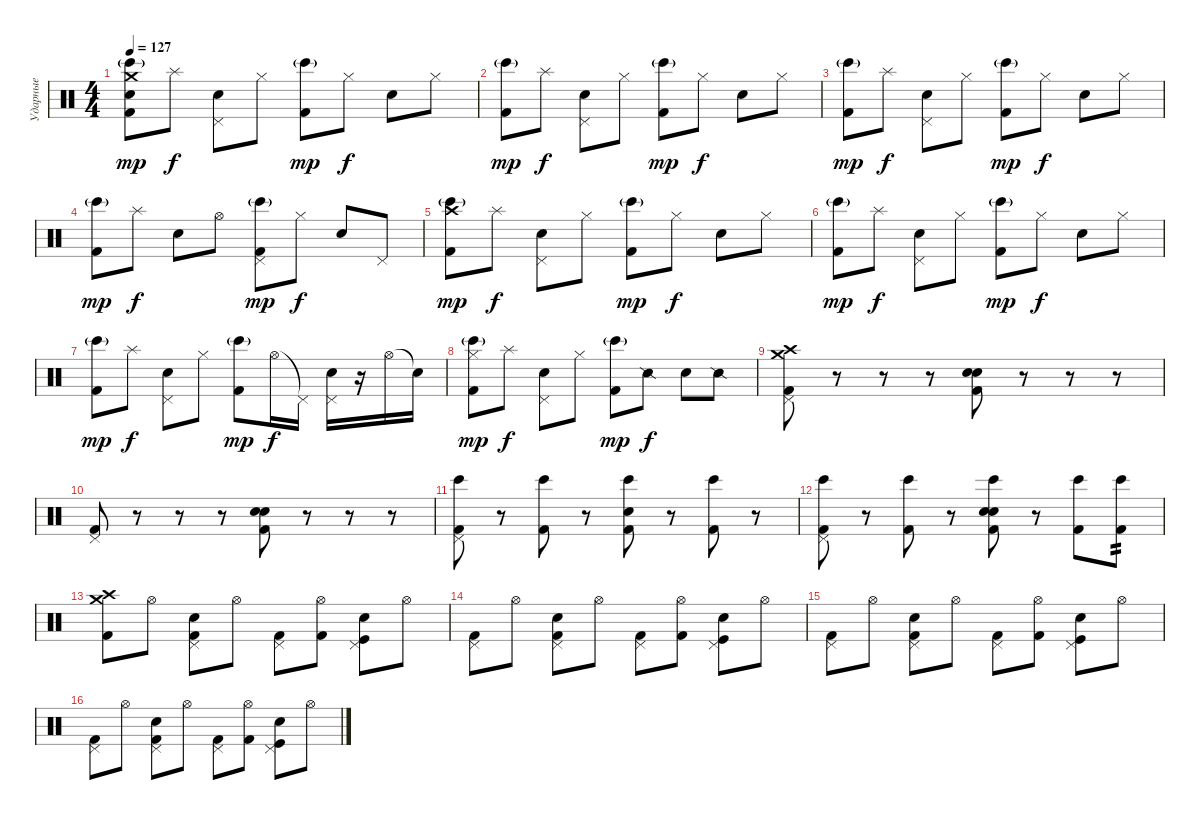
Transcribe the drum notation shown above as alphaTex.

\track ("Ударные" "Ударные") {instrument percussion}
\staff {score}
\articulation defaults
\ts (4 4)
\tempo 127
\clef neutral
\ks c
("Crash medium (hit)" "Bongo High (hit)"{g} "Electric Snare (hit)" "Kick (hit) 2").8{dy mp} "Splash (hit)".8{dy f} ("Pedal Hi-Hat (hit)" "Snare (hit) 2").8 "Hi-Hat (closed)".8 ("Bongo High (hit)"{g} "Kick (hit) 2").8{dy mp} "Hi-Hat (closed)".8{dy f} "Snare (hit) 2".8 "Hi-Hat (closed)".8 |
("Bongo High (hit)"{g} "Kick (hit) 2").8{dy mp} "Splash (hit)".8{dy f} ("Pedal Hi-Hat (hit)" "Snare (hit) 2").8 "Hi-Hat (closed)".8 ("Bongo High (hit)"{g} "Kick (hit) 2").8{dy mp} "Hi-Hat (closed)".8{dy f} "Snare (hit) 2".8 "Hi-Hat (closed)".8 |
("Bongo High (hit)"{g} "Kick (hit) 2").8{dy mp} "Splash (hit)".8{dy f} ("Pedal Hi-Hat (hit)" "Snare (hit) 2").8 "Hi-Hat (closed)".8 ("Bongo High (hit)"{g} "Kick (hit) 2").8{dy mp} "Hi-Hat (closed)".8{dy f} "Snare (hit) 2".8 "Hi-Hat (closed)".8 |
("Bongo High (hit)"{g} "Kick (hit) 2").8{dy mp} "Splash (hit)".8{dy f} "Snare (hit) 2".8 "Hi-Hat (open)".8 ("Pedal Hi-Hat (hit)" "Bongo High (hit)"{g} "Kick (hit) 2").8{dy mp} "Hi-Hat (closed)".8{dy f} "Snare (hit) 2".8 "Pedal Hi-Hat (hit)".8 |
("Crash high (hit)" "Bongo High (hit)"{g} "Kick (hit) 2").8{dy mp} "Splash (hit)".8{dy f} ("Pedal Hi-Hat (hit)" "Snare (hit) 2").8 "Hi-Hat (closed)".8 ("Bongo High (hit)"{g} "Kick (hit) 2").8{dy mp} "Hi-Hat (closed)".8{dy f} "Snare (hit) 2".8 "Hi-Hat (closed)".8 |
("Bongo High (hit)"{g} "Kick (hit) 2").8{dy mp} "Splash (hit)".8{dy f} ("Pedal Hi-Hat (hit)" "Snare (hit) 2").8 "Hi-Hat (closed)".8 ("Bongo High (hit)"{g} "Kick (hit) 2").8{dy mp} "Hi-Hat (closed)".8{dy f} "Snare (hit) 2".8 "Hi-Hat (closed)".8 |
("Bongo High (hit)"{g} "Kick (hit) 2").8{dy mp} "Splash (hit)".8{dy f} ("Pedal Hi-Hat (hit)" "Snare (hit) 2").8 "Hi-Hat (closed)".8 ("Bongo High (hit)"{g} "Kick (hit) 2").8{dy mp} "Hi-Hat (open)".16{dy f} "Pedal Hi-Hat (hit)"{t}.16 ("Pedal Hi-Hat (hit)" "Snare (hit) 2").16 r.16 "Hi-Hat (open)".16 "Snare (hit)"{t}.16 |
("Hi-Hat (closed)" "Bongo High (hit)"{g} "Kick (hit) 2").8{dy mp} "Splash (hit)".8{dy f} ("Pedal Hi-Hat (hit)" "Snare (hit) 2").8 "Hi-Hat (closed)".8 ("Bongo High (hit)"{g} "Kick (hit) 2").8{dy mp} "Snare (side stick) 2".8{dy f} "Snare (hit) 2".8 "Snare (side stick) 2".8 |
("Crash medium (hit)" "Crash high (hit)" "Pedal Hi-Hat (hit)" "Kick (hit) 2").8 r.8 r.8 r.8 ("Snare (hit) 2" "Electric Snare (hit)" "Kick (hit) 2").8 r.8 r.8 r.8 |
("Pedal Hi-Hat (hit)" "Kick (hit) 2").8 r.8 r.8 r.8 ("Snare (hit) 2" "Electric Snare (hit)" "Kick (hit) 2").8 r.8 r.8 r.8 |
("Pedal Hi-Hat (hit)" "Bongo High (hit)" "Kick (hit) 2").8 r.8 ("Bongo High (hit)" "Kick (hit) 2").8 r.8 ("Electric Snare (hit)" "Bongo High (hit)" "Kick (hit) 2").8 r.8 ("Bongo High (hit)" "Kick (hit) 2").8 r.8 |
("Pedal Hi-Hat (hit)" "Bongo High (hit)" "Kick (hit) 2").8 r.8 ("Bongo High (hit)" "Kick (hit) 2").8 r.8 ("Snare (hit) 2" "Electric Snare (hit)" "Bongo High (hit)" "Kick (hit) 2").8 r.8 ("Bongo High (hit)" "Kick (hit) 2").8 ("Bongo High (hit)" "Kick (hit) 2").8{tp 2} |
("Crash medium (hit)" "Crash high (hit)" "Kick (hit) 2").8 "Hi-Hat (open)".8 ("Pedal Hi-Hat (hit)" "Snare (hit) 2" "Kick (hit) 2").8 "Hi-Hat (open)".8 ("Pedal Hi-Hat (hit)" "Kick (hit) 2").8 ("Hi-Hat (open)" "Kick (hit) 2").8 ("Pedal Hi-Hat (hit)" "Snare (hit) 2" "Kick (hit)").8 "Hi-Hat (open)".8 |
("Pedal Hi-Hat (hit)" "Kick (hit) 2").8 "Hi-Hat (open)".8 ("Pedal Hi-Hat (hit)" "Snare (hit) 2" "Kick (hit) 2").8 "Hi-Hat (open)".8 ("Pedal Hi-Hat (hit)" "Kick (hit) 2").8 ("Hi-Hat (open)" "Kick (hit) 2").8 ("Pedal Hi-Hat (hit)" "Snare (hit) 2" "Kick (hit)").8 "Hi-Hat (open)".8 |
("Pedal Hi-Hat (hit)" "Kick (hit) 2").8 "Hi-Hat (open)".8 ("Pedal Hi-Hat (hit)" "Snare (hit) 2" "Kick (hit) 2").8 "Hi-Hat (open)".8 ("Pedal Hi-Hat (hit)" "Kick (hit) 2").8 ("Hi-Hat (open)" "Kick (hit) 2").8 ("Pedal Hi-Hat (hit)" "Snare (hit) 2" "Kick (hit)").8 "Hi-Hat (open)".8 |
("Pedal Hi-Hat (hit)" "Kick (hit) 2").8 "Hi-Hat (open)".8 ("Pedal Hi-Hat (hit)" "Snare (hit) 2" "Kick (hit) 2").8 "Hi-Hat (open)".8 ("Pedal Hi-Hat (hit)" "Kick (hit) 2").8 ("Hi-Hat (open)" "Kick (hit) 2").8 ("Pedal Hi-Hat (hit)" "Snare (hit) 2" "Kick (hit)").8 "Hi-Hat (open)".8
